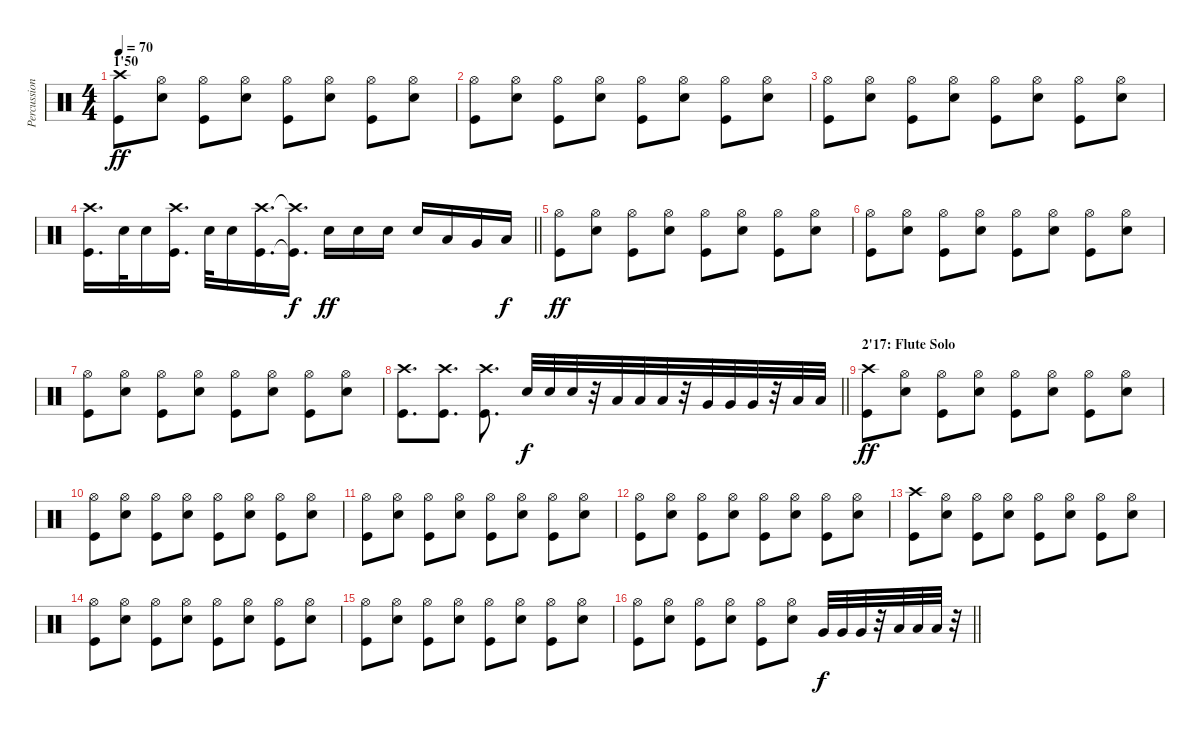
\track ("Percussions" "Percussion") {instrument percussion}
\staff {score}
\articulation defaults
\ts (4 4)
\section ("" "1'50")
\tempo 70
\clef neutral
\ks c
("Kick (hit)" "Crash high (hit)").8{dy ff} ("Electric Snare (hit)" "Hi-Hat (open)").8 ("Kick (hit)" "Hi-Hat (open)").8 ("Electric Snare (hit)" "Hi-Hat (open)").8 ("Kick (hit)" "Hi-Hat (open)").8 ("Electric Snare (hit)" "Hi-Hat (open)").8 ("Kick (hit)" "Hi-Hat (open)").8 ("Electric Snare (hit)" "Hi-Hat (open)").8 |
("Kick (hit)" "Hi-Hat (open)").8 ("Electric Snare (hit)" "Hi-Hat (open)").8 ("Kick (hit)" "Hi-Hat (open)").8 ("Electric Snare (hit)" "Hi-Hat (open)").8 ("Kick (hit)" "Hi-Hat (open)").8 ("Electric Snare (hit)" "Hi-Hat (open)").8 ("Kick (hit)" "Hi-Hat (open)").8 ("Electric Snare (hit)" "Hi-Hat (open)").8 |
("Kick (hit)" "Hi-Hat (open)").8 ("Electric Snare (hit)" "Hi-Hat (open)").8 ("Kick (hit)" "Hi-Hat (open)").8 ("Electric Snare (hit)" "Hi-Hat (open)").8 ("Kick (hit)" "Hi-Hat (open)").8 ("Electric Snare (hit)" "Hi-Hat (open)").8 ("Kick (hit)" "Hi-Hat (open)").8 ("Electric Snare (hit)" "Hi-Hat (open)").8 |
\barLineRight lightlight
("Kick (hit)" "Crash high (hit)").16{d} "Electric Snare (hit)".32 "Electric Snare (hit)".16 ("Kick (hit)" "Crash high (hit)").16{d} "Electric Snare (hit)".32 "Electric Snare (hit)".16 ("Kick (hit)" "Crash high (hit)").16{d} ("Kick (hit)"{t} "Crash high (hit)"{t}).16{d dy f} "Electric Snare (hit)".16{dy ff} "Electric Snare (hit)".16 "Electric Snare (hit)".16 "Electric Snare (hit)".16{beam Up} "Low Tom (hit)".16{beam Up} "Very Low Tom (hit)".16{beam Up} "Low Floor Tom (hit)".16{dy f} |
("Kick (hit)" "Hi-Hat (open)").8{dy ff} ("Electric Snare (hit)" "Hi-Hat (open)").8 ("Kick (hit)" "Hi-Hat (open)").8 ("Electric Snare (hit)" "Hi-Hat (open)").8 ("Kick (hit)" "Hi-Hat (open)").8 ("Electric Snare (hit)" "Hi-Hat (open)").8 ("Kick (hit)" "Hi-Hat (open)").8 ("Electric Snare (hit)" "Hi-Hat (open)").8 |
("Kick (hit)" "Hi-Hat (open)").8 ("Electric Snare (hit)" "Hi-Hat (open)").8 ("Kick (hit)" "Hi-Hat (open)").8 ("Electric Snare (hit)" "Hi-Hat (open)").8 ("Kick (hit)" "Hi-Hat (open)").8 ("Electric Snare (hit)" "Hi-Hat (open)").8 ("Kick (hit)" "Hi-Hat (open)").8 ("Electric Snare (hit)" "Hi-Hat (open)").8 |
("Kick (hit)" "Hi-Hat (open)").8 ("Electric Snare (hit)" "Hi-Hat (open)").8 ("Kick (hit)" "Hi-Hat (open)").8 ("Electric Snare (hit)" "Hi-Hat (open)").8 ("Kick (hit)" "Hi-Hat (open)").8 ("Electric Snare (hit)" "Hi-Hat (open)").8 ("Kick (hit)" "Hi-Hat (open)").8 ("Electric Snare (hit)" "Hi-Hat (open)").8 |
\barLineRight lightlight
("Kick (hit)" "Crash high (hit)").8{d} ("Kick (hit)" "Crash high (hit)").8{d} ("Kick (hit)" "Crash high (hit)").8{d} "Electric Snare (hit)".32{dy f} "Electric Snare (hit)".32 "Electric Snare (hit)".32 r.32 "Low Tom (hit)".32 "Low Tom (hit)".32{beam merge} "Low Tom (hit)".32 r.32 "Very Low Tom (hit)".32 "Very Low Tom (hit)".32 "Very Low Tom (hit)".32 r.32 "Low Floor Tom (hit)".32 "Low Floor Tom (hit)".32 |
\section ("" "2'17: Flute Solo")
("Kick (hit)" "Crash high (hit)").8{dy ff} ("Electric Snare (hit)" "Hi-Hat (open)").8 ("Kick (hit)" "Hi-Hat (open)").8 ("Electric Snare (hit)" "Hi-Hat (open)").8 ("Kick (hit)" "Hi-Hat (open)").8 ("Electric Snare (hit)" "Hi-Hat (open)").8 ("Kick (hit)" "Hi-Hat (open)").8 ("Electric Snare (hit)" "Hi-Hat (open)").8 |
("Kick (hit)" "Hi-Hat (open)").8 ("Electric Snare (hit)" "Hi-Hat (open)").8 ("Kick (hit)" "Hi-Hat (open)").8 ("Electric Snare (hit)" "Hi-Hat (open)").8 ("Kick (hit)" "Hi-Hat (open)").8 ("Electric Snare (hit)" "Hi-Hat (open)").8 ("Kick (hit)" "Hi-Hat (open)").8 ("Electric Snare (hit)" "Hi-Hat (open)").8 |
("Kick (hit)" "Hi-Hat (open)").8 ("Electric Snare (hit)" "Hi-Hat (open)").8 ("Kick (hit)" "Hi-Hat (open)").8 ("Electric Snare (hit)" "Hi-Hat (open)").8 ("Kick (hit)" "Hi-Hat (open)").8 ("Electric Snare (hit)" "Hi-Hat (open)").8 ("Kick (hit)" "Hi-Hat (open)").8 ("Electric Snare (hit)" "Hi-Hat (open)").8 |
("Kick (hit)" "Hi-Hat (open)").8 ("Electric Snare (hit)" "Hi-Hat (open)").8 ("Kick (hit)" "Hi-Hat (open)").8 ("Electric Snare (hit)" "Hi-Hat (open)").8 ("Kick (hit)" "Hi-Hat (open)").8 ("Electric Snare (hit)" "Hi-Hat (open)").8 ("Kick (hit)" "Hi-Hat (open)").8 ("Electric Snare (hit)" "Hi-Hat (open)").8 |
("Kick (hit)" "Crash high (hit)").8 ("Electric Snare (hit)" "Hi-Hat (open)").8 ("Kick (hit)" "Hi-Hat (open)").8 ("Electric Snare (hit)" "Hi-Hat (open)").8 ("Kick (hit)" "Hi-Hat (open)").8 ("Electric Snare (hit)" "Hi-Hat (open)").8 ("Kick (hit)" "Hi-Hat (open)").8 ("Electric Snare (hit)" "Hi-Hat (open)").8 |
("Kick (hit)" "Hi-Hat (open)").8 ("Electric Snare (hit)" "Hi-Hat (open)").8 ("Kick (hit)" "Hi-Hat (open)").8 ("Electric Snare (hit)" "Hi-Hat (open)").8 ("Kick (hit)" "Hi-Hat (open)").8 ("Electric Snare (hit)" "Hi-Hat (open)").8 ("Kick (hit)" "Hi-Hat (open)").8 ("Electric Snare (hit)" "Hi-Hat (open)").8 |
("Kick (hit)" "Hi-Hat (open)").8 ("Electric Snare (hit)" "Hi-Hat (open)").8 ("Kick (hit)" "Hi-Hat (open)").8 ("Electric Snare (hit)" "Hi-Hat (open)").8 ("Kick (hit)" "Hi-Hat (open)").8 ("Electric Snare (hit)" "Hi-Hat (open)").8 ("Kick (hit)" "Hi-Hat (open)").8 ("Electric Snare (hit)" "Hi-Hat (open)").8 |
\barLineRight lightlight
("Kick (hit)" "Hi-Hat (open)").8 ("Electric Snare (hit)" "Hi-Hat (open)").8 ("Kick (hit)" "Hi-Hat (open)").8 ("Electric Snare (hit)" "Hi-Hat (open)").8 ("Kick (hit)" "Hi-Hat (open)").8 ("Electric Snare (hit)" "Hi-Hat (open)").8 "Very Low Tom (hit)".32{dy f} "Very Low Tom (hit)".32 "Very Low Tom (hit)".32 r.32 "Low Floor Tom (hit)".32 "Low Floor Tom (hit)".32 "Low Floor Tom (hit)".32 r.32
